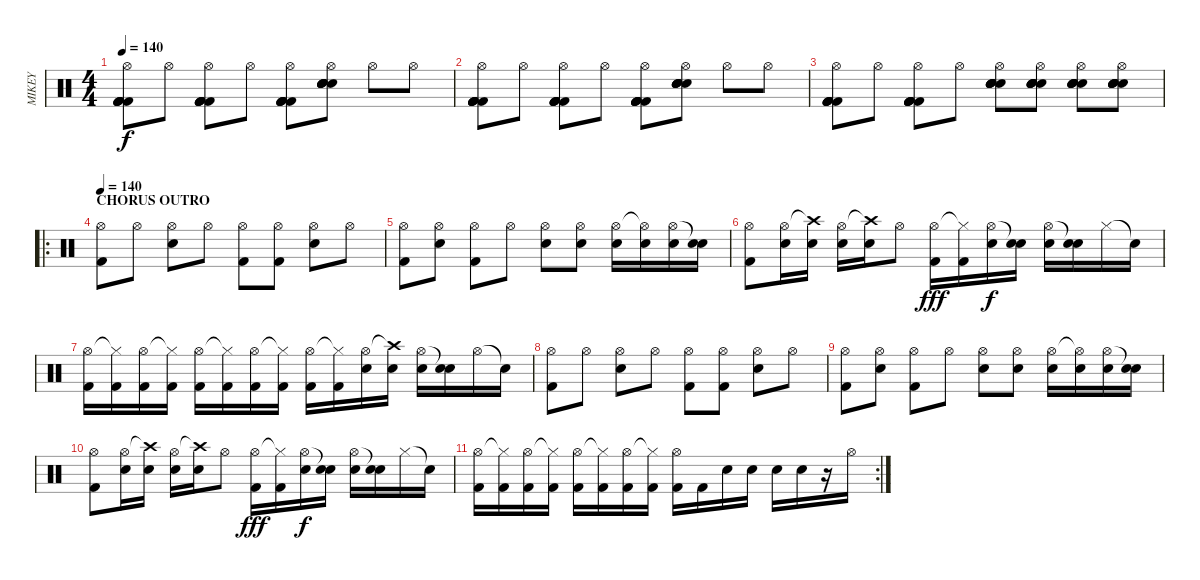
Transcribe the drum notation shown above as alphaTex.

\track ("MIKEY" "MIKEY") {instrument percussion}
\staff {score}
\articulation defaults
\ts (4 4)
\tempo 140
\clef neutral
\ks c
("Kick (hit) 2" "Kick (hit) 2" "Kick (hit) 2" "Kick (hit) 2" "Kick (hit) 2" "Hi-Hat (open)").8{dy f} "Hi-Hat (open)".8 ("Kick (hit) 2" "Kick (hit) 2" "Kick (hit) 2" "Kick (hit) 2" "Kick (hit) 2" "Hi-Hat (open)").8 "Hi-Hat (open)".8 ("Kick (hit) 2" "Kick (hit) 2" "Kick (hit) 2" "Kick (hit) 2" "Kick (hit) 2" "Hi-Hat (open)").8 ("Snare (hit) 2" "Snare (hit) 2" "Snare (hit) 2" "Snare (hit) 2" "Snare (hit) 2" "Hi-Hat (open)").8 "Hi-Hat (open)".8 "Hi-Hat (open)".8 |
("Kick (hit) 2" "Kick (hit) 2" "Kick (hit) 2" "Kick (hit) 2" "Kick (hit) 2" "Hi-Hat (open)").8 "Hi-Hat (open)".8 ("Kick (hit) 2" "Kick (hit) 2" "Kick (hit) 2" "Kick (hit) 2" "Kick (hit) 2" "Hi-Hat (open)").8 "Hi-Hat (open)".8 ("Kick (hit) 2" "Kick (hit) 2" "Kick (hit) 2" "Kick (hit) 2" "Kick (hit) 2" "Hi-Hat (open)").8 ("Snare (hit) 2" "Snare (hit) 2" "Snare (hit) 2" "Snare (hit) 2" "Snare (hit) 2" "Hi-Hat (open)").8 "Hi-Hat (open)".8 "Hi-Hat (open)".8 |
("Kick (hit) 2" "Kick (hit) 2" "Kick (hit) 2" "Kick (hit) 2" "Kick (hit) 2" "Hi-Hat (open)").8 "Hi-Hat (open)".8 ("Kick (hit) 2" "Kick (hit) 2" "Kick (hit) 2" "Kick (hit) 2" "Kick (hit) 2" "Hi-Hat (open)").8 "Hi-Hat (open)".8 ("Snare (hit) 2" "Snare (hit) 2" "Snare (hit) 2" "Snare (hit) 2" "Snare (hit) 2" "Hi-Hat (open)").8 ("Snare (hit) 2" "Snare (hit) 2" "Snare (hit) 2" "Snare (hit) 2" "Snare (hit) 2" "Hi-Hat (open)").8 ("Snare (hit) 2" "Snare (hit) 2" "Snare (hit) 2" "Snare (hit) 2" "Snare (hit) 2" "Hi-Hat (open)").8 ("Snare (hit) 2" "Snare (hit) 2" "Snare (hit) 2" "Snare (hit) 2" "Snare (hit) 2" "Hi-Hat (open)").8 |
\ro
\section ("" "CHORUS OUTRO")
\tempo 140
("Hi-Hat (open)" "Kick (hit) 2").8 "Hi-Hat (open)".8 ("Hi-Hat (open)" "Electric Snare (hit)").8 "Hi-Hat (open)".8 ("Hi-Hat (open)" "Kick (hit) 2").8 ("Hi-Hat (open)" "Kick (hit) 2").8 ("Hi-Hat (open)" "Electric Snare (hit)").8 "Hi-Hat (open)".8 |
("Hi-Hat (open)" "Kick (hit) 2").8 ("Hi-Hat (open)" "Electric Snare (hit)").8 ("Hi-Hat (open)" "Kick (hit) 2").8 "Hi-Hat (open)".8 ("Hi-Hat (open)" "Electric Snare (hit)").8 ("Hi-Hat (open)" "Electric Snare (hit)").8 ("Hi-Hat (open)" "Electric Snare (hit)").16 ("Hi-Hat (open)"{t} "Electric Snare (hit)").16 ("Hi-Hat (open)" "Electric Snare (hit)").16 ("Snare (hit)"{t} "Electric Snare (hit)").16 |
("Hi-Hat (open)" "Kick (hit) 2").8 ("Hi-Hat (open)" "Electric Snare (hit)").16 ("Crash high (hit)"{t} "Electric Snare (hit)").16 ("Hi-Hat (open)" "Electric Snare (hit)").16 ("Crash high (hit)"{t} "Electric Snare (hit)").16 "Hi-Hat (open)".8 ("Hi-Hat (open)" "Kick (hit) 2").16{dy fff} ("Hi-Hat (closed)"{t} "Kick (hit) 2").16 ("Hi-Hat (open)" "Electric Snare (hit)").16{dy f} ("Snare (hit)"{t} "Electric Snare (hit)").16 ("Hi-Hat (open)" "Electric Snare (hit)").16 ("Snare (hit)"{t} "Electric Snare (hit)").16 "Hi-Hat (closed)".16 "Snare (hit)"{t}.16 |
("Hi-Hat (open)" "Kick (hit) 2").16 ("Hi-Hat (closed)"{t} "Kick (hit) 2").16 ("Hi-Hat (open)" "Kick (hit) 2").16 ("Hi-Hat (closed)"{t} "Kick (hit) 2").16 ("Hi-Hat (open)" "Kick (hit) 2").16 ("Hi-Hat (closed)"{t} "Kick (hit) 2").16 ("Hi-Hat (open)" "Kick (hit) 2").16 ("Hi-Hat (closed)"{t} "Kick (hit) 2").16 ("Hi-Hat (open)" "Kick (hit) 2").16 ("Hi-Hat (closed)"{t} "Kick (hit) 2").16 ("Hi-Hat (open)" "Electric Snare (hit)").16 ("Crash high (hit)"{t} "Electric Snare (hit)").16 ("Hi-Hat (open)" "Electric Snare (hit)").16 ("Snare (hit)"{t} "Electric Snare (hit)").16 "Hi-Hat (open)".16 "Snare (hit)"{t}.16 |
("Hi-Hat (open)" "Kick (hit) 2").8 "Hi-Hat (open)".8 ("Hi-Hat (open)" "Electric Snare (hit)").8 "Hi-Hat (open)".8 ("Hi-Hat (open)" "Kick (hit) 2").8 ("Hi-Hat (open)" "Kick (hit) 2").8 ("Hi-Hat (open)" "Electric Snare (hit)").8 "Hi-Hat (open)".8 |
("Hi-Hat (open)" "Kick (hit) 2").8 ("Hi-Hat (open)" "Electric Snare (hit)").8 ("Hi-Hat (open)" "Kick (hit) 2").8 "Hi-Hat (open)".8 ("Hi-Hat (open)" "Electric Snare (hit)").8 ("Hi-Hat (open)" "Electric Snare (hit)").8 ("Hi-Hat (open)" "Electric Snare (hit)").16 ("Hi-Hat (open)"{t} "Electric Snare (hit)").16 ("Hi-Hat (open)" "Electric Snare (hit)").16 ("Snare (hit)"{t} "Electric Snare (hit)").16 |
("Hi-Hat (open)" "Kick (hit) 2").8 ("Hi-Hat (open)" "Electric Snare (hit)").16 ("Crash high (hit)"{t} "Electric Snare (hit)").16 ("Hi-Hat (open)" "Electric Snare (hit)").16 ("Crash high (hit)"{t} "Electric Snare (hit)").16 "Hi-Hat (open)".8 ("Hi-Hat (open)" "Kick (hit) 2").16{dy fff} ("Hi-Hat (closed)"{t} "Kick (hit) 2").16 ("Hi-Hat (open)" "Electric Snare (hit)").16{dy f} ("Snare (hit)"{t} "Electric Snare (hit)").16 ("Hi-Hat (open)" "Electric Snare (hit)").16 ("Snare (hit)"{t} "Electric Snare (hit)").16 "Hi-Hat (closed)".16 "Snare (hit)"{t}.16 |
\rc 2
("Hi-Hat (open)" "Kick (hit) 2").16 ("Hi-Hat (closed)"{t} "Kick (hit) 2").16 ("Hi-Hat (open)" "Kick (hit) 2").16 ("Hi-Hat (closed)"{t} "Kick (hit) 2").16 ("Hi-Hat (open)" "Kick (hit) 2").16 ("Hi-Hat (closed)"{t} "Kick (hit) 2").16 ("Hi-Hat (open)" "Kick (hit) 2").16 ("Hi-Hat (closed)"{t} "Kick (hit) 2").16 ("Hi-Hat (open)" "Kick (hit) 2").16 "Kick (hit) 2".16 "Electric Snare (hit)".16 "Electric Snare (hit)".16 "Electric Snare (hit)".16 "Electric Snare (hit)".16 r.16 "Hi-Hat (open)".16
